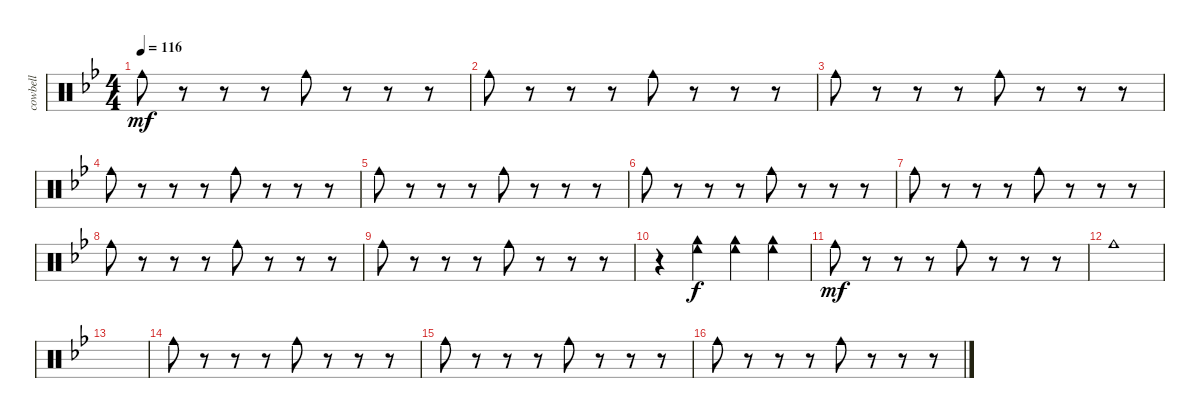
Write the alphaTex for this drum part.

\track ("cowbell" "cowbell") {instrument percussion}
\staff {score}
\articulation defaults
\ts (4 4)
\tempo 116
\clef neutral
\ks bb "Cowbell medium (hit)".8{dy mf}
r.8 r.8 r.8 "Cowbell medium (hit)".8 r.8 r.8 r.8 |
"Cowbell medium (hit)".8 r.8 r.8 r.8 "Cowbell medium (hit)".8 r.8 r.8 r.8 |
"Cowbell medium (hit)".8 r.8 r.8 r.8 "Cowbell medium (hit)".8 r.8 r.8 r.8 |
"Cowbell medium (hit)".8 r.8 r.8 r.8 "Cowbell medium (hit)".8 r.8 r.8 r.8 |
"Cowbell medium (hit)".8 r.8 r.8 r.8 "Cowbell medium (hit)".8 r.8 r.8 r.8 |
"Cowbell medium (hit)".8 r.8 r.8 r.8 "Cowbell medium (hit)".8 r.8 r.8 r.8 |
"Cowbell medium (hit)".8 r.8 r.8 r.8 "Cowbell medium (hit)".8 r.8 r.8 r.8 |
"Cowbell medium (hit)".8 r.8 r.8 r.8 "Cowbell medium (hit)".8 r.8 r.8 r.8 |
"Cowbell medium (hit)".8 r.8 r.8 r.8 "Cowbell medium (hit)".8 r.8 r.8 r.8 |
r.4 ("Cowbell low (hit)" "Cowbell high (hit)").4{dy f} ("Cowbell low (hit)" "Cowbell high (hit)").4 ("Cowbell low (hit)" "Cowbell high (hit)").4 |
"Cowbell medium (hit)".8{dy mf} r.8 r.8 r.8 "Cowbell medium (hit)".8 r.8 r.8 r.8 |
"Cowbell medium (hit)".1 |
|
"Cowbell medium (hit)".8 r.8 r.8 r.8 "Cowbell medium (hit)".8 r.8 r.8 r.8 |
"Cowbell medium (hit)".8 r.8 r.8 r.8 "Cowbell medium (hit)".8 r.8 r.8 r.8 |
"Cowbell medium (hit)".8 r.8 r.8 r.8 "Cowbell medium (hit)".8 r.8 r.8 r.8
